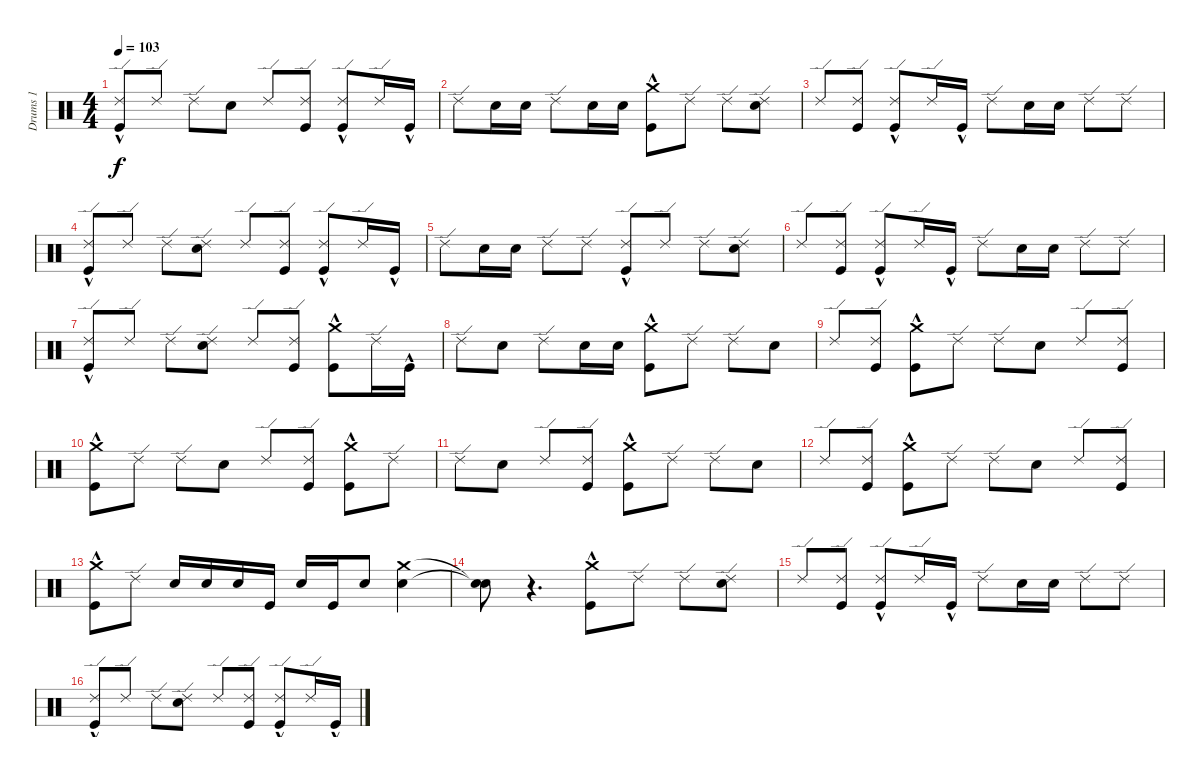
\track ("Drums 1" "Drums 1") {instrument percussion}
\staff {score}
\articulation defaults
\ts (4 4)
\tempo 103
\clef neutral
\ks c
("Kick (hit)"{hac} "Ride (edge) 2").8{dy f} "Ride (edge) 2".8 "Ride (edge) 2".8 "Electric Snare (hit)".8 "Ride (edge) 2".8 ("Kick (hit)" "Ride (edge) 2").8 ("Kick (hit)"{hac} "Ride (edge) 2").8 "Ride (edge) 2".16 "Kick (hit)"{hac}.16 |
"Ride (edge) 2".8 "Electric Snare (hit)".16 "Electric Snare (hit)".16 "Ride (edge) 2".8 "Electric Snare (hit)".16 "Electric Snare (hit)".16 ("Kick (hit)"{hac} "Crash medium (hit)").8 "Ride (edge) 2".8 "Ride (edge) 2".8 ("Electric Snare (hit)" "Ride (edge) 2").8 |
"Ride (edge) 2".8 ("Kick (hit)" "Ride (edge) 2").8 ("Kick (hit)"{hac} "Ride (edge) 2").8 "Ride (edge) 2".16 "Kick (hit)"{hac}.16 "Ride (edge) 2".8 "Electric Snare (hit)".16 "Electric Snare (hit)".16 "Ride (edge) 2".8 "Ride (edge) 2".8 |
("Kick (hit)"{hac} "Ride (edge) 2").8 "Ride (edge) 2".8 "Ride (edge) 2".8 ("Electric Snare (hit)" "Ride (edge) 2").8 "Ride (edge) 2".8 ("Kick (hit)" "Ride (edge) 2").8 ("Kick (hit)"{hac} "Ride (edge) 2").8 "Ride (edge) 2".16 "Kick (hit)"{hac}.16 |
"Ride (edge) 2".8 "Electric Snare (hit)".16 "Electric Snare (hit)".16 "Ride (edge) 2".8 "Ride (edge) 2".8 ("Kick (hit)"{hac} "Ride (edge) 2").8 "Ride (edge) 2".8 "Ride (edge) 2".8 ("Electric Snare (hit)" "Ride (edge) 2").8 |
"Ride (edge) 2".8 ("Kick (hit)" "Ride (edge) 2").8 ("Kick (hit)"{hac} "Ride (edge) 2").8 "Ride (edge) 2".16 "Kick (hit)"{hac}.16 "Ride (edge) 2".8 "Electric Snare (hit)".16 "Electric Snare (hit)".16 "Ride (edge) 2".8 "Ride (edge) 2".8 |
("Kick (hit)"{hac} "Ride (edge) 2").8 "Ride (edge) 2".8 "Ride (edge) 2".8 ("Electric Snare (hit)" "Ride (edge) 2").8 "Ride (edge) 2".8 ("Kick (hit)" "Ride (edge) 2").8 ("Kick (hit)"{hac} "Crash medium (hit)").8 "Ride (edge) 2".16 "Kick (hit)"{hac}.16 |
"Ride (edge) 2".8 "Electric Snare (hit)".8 "Ride (edge) 2".8 "Electric Snare (hit)".16 "Electric Snare (hit)".16 ("Kick (hit)"{hac} "Crash medium (hit)").8 "Ride (edge) 2".8 "Ride (edge) 2".8 "Electric Snare (hit)".8 |
"Ride (edge) 2".8 ("Kick (hit)" "Ride (edge) 2").8 ("Kick (hit)"{hac} "Crash medium (hit)").8 "Ride (edge) 2".8 "Ride (edge) 2".8 "Electric Snare (hit)".8 "Ride (edge) 2".8 ("Kick (hit)" "Ride (edge) 2").8 |
("Kick (hit)"{hac} "Crash medium (hit)").8 "Ride (edge) 2".8 "Ride (edge) 2".8 "Electric Snare (hit)".8 "Ride (edge) 2".8 ("Kick (hit)" "Ride (edge) 2").8 ("Kick (hit)"{hac} "Crash medium (hit)").8 "Ride (edge) 2".8 |
"Ride (edge) 2".8 "Electric Snare (hit)".8 "Ride (edge) 2".8 ("Kick (hit)" "Ride (edge) 2").8 ("Kick (hit)"{hac} "Crash medium (hit)").8 "Ride (edge) 2".8 "Ride (edge) 2".8 "Electric Snare (hit)".8 |
"Ride (edge) 2".8 ("Kick (hit)" "Ride (edge) 2").8 ("Kick (hit)"{hac} "Crash medium (hit)").8 "Ride (edge) 2".8 "Ride (edge) 2".8 "Electric Snare (hit)".8 "Ride (edge) 2".8 ("Kick (hit)" "Ride (edge) 2").8 |
("Kick (hit)"{hac} "Crash medium (hit)").8 "Ride (edge) 2".8 "Electric Snare (hit)".16 "Electric Snare (hit)".16 "Electric Snare (hit)".16 "Kick (hit)".16 "Electric Snare (hit)".16 "Kick (hit)".16 "Electric Snare (hit)".8 ("Crash medium (hit)" "Electric Snare (hit)").4 |
("Snare (hit)"{t} "Snare (hit)"{t}).8 r.4{d} ("Kick (hit)"{hac} "Crash medium (hit)").8 "Ride (edge) 2".8 "Ride (edge) 2".8 ("Electric Snare (hit)" "Ride (edge) 2").8 |
"Ride (edge) 2".8 ("Kick (hit)" "Ride (edge) 2").8 ("Kick (hit)"{hac} "Ride (edge) 2").8 "Ride (edge) 2".16 "Kick (hit)"{hac}.16 "Ride (edge) 2".8 "Electric Snare (hit)".16 "Electric Snare (hit)".16 "Ride (edge) 2".8 "Ride (edge) 2".8 |
("Kick (hit)"{hac} "Ride (edge) 2").8 "Ride (edge) 2".8 "Ride (edge) 2".8 ("Electric Snare (hit)" "Ride (edge) 2").8 "Ride (edge) 2".8 ("Kick (hit)" "Ride (edge) 2").8 ("Kick (hit)"{hac} "Ride (edge) 2").8 "Ride (edge) 2".16 "Kick (hit)"{hac}.16
